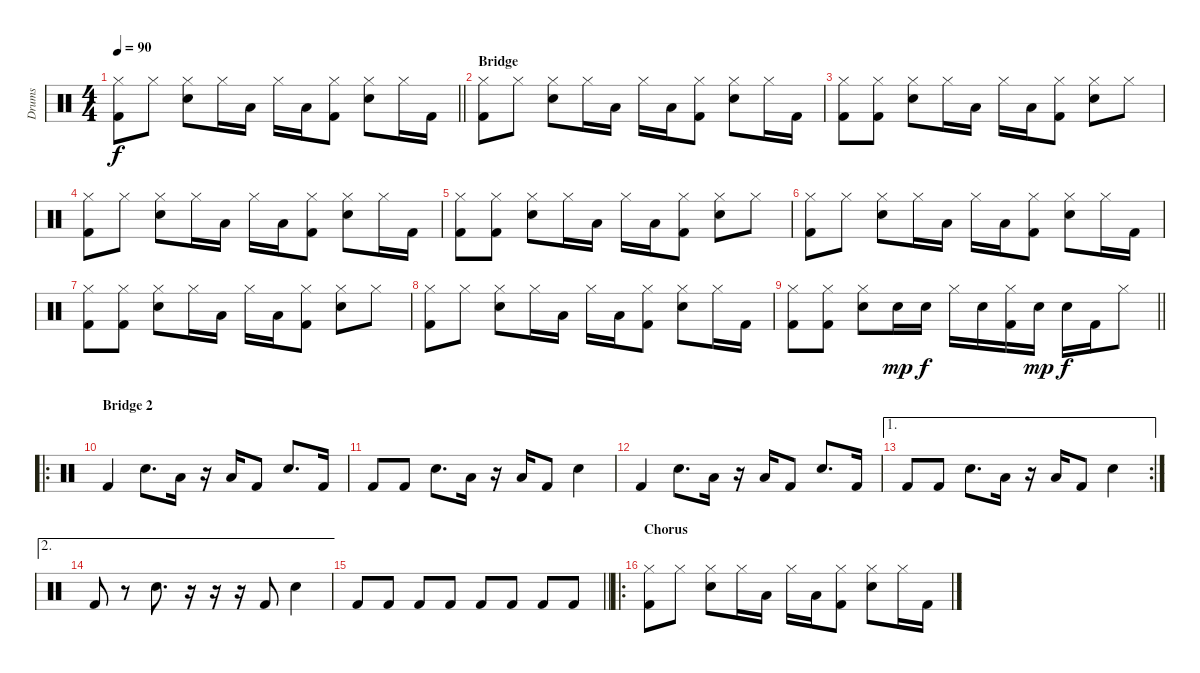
\track ("Drums" "Drums") {instrument percussion}
\staff {score}
\articulation defaults
\ts (4 4)
\tempo 90
\clef neutral
\barLineRight lightlight
\ks c
("Hi-Hat (closed)" "Kick (hit) 2").8{dy f} "Hi-Hat (closed)".8 ("Hand Clap (hit)" "Hi-Hat (closed)").8 "Hi-Hat (closed)".16 "Low Tom (hit)".16 "Hi-Hat (closed)".16 "Low Tom (hit)".16 ("Hi-Hat (closed)" "Kick (hit) 2").8 ("Hand Clap (hit)" "Hi-Hat (closed)").8 "Hi-Hat (closed)".16 "Kick (hit) 2".16 |
\section ("" "Bridge")
("Hi-Hat (closed)" "Kick (hit) 2").8 "Hi-Hat (closed)".8 ("Hand Clap (hit)" "Hi-Hat (closed)").8 "Hi-Hat (closed)".16 "Low Tom (hit)".16 "Hi-Hat (closed)".16 "Low Tom (hit)".16 ("Hi-Hat (closed)" "Kick (hit) 2").8 ("Hand Clap (hit)" "Hi-Hat (closed)").8 "Hi-Hat (closed)".16 "Kick (hit) 2".16 |
("Hi-Hat (closed)" "Kick (hit) 2").8 ("Hi-Hat (closed)" "Kick (hit) 2").8 ("Hand Clap (hit)" "Hi-Hat (closed)").8 "Hi-Hat (closed)".16 "Low Tom (hit)".16 "Hi-Hat (closed)".16 "Low Tom (hit)".16 ("Hi-Hat (closed)" "Kick (hit) 2").8 ("Hand Clap (hit)" "Hi-Hat (closed)").8 "Hi-Hat (closed)".8 |
("Hi-Hat (closed)" "Kick (hit) 2").8 "Hi-Hat (closed)".8 ("Hand Clap (hit)" "Hi-Hat (closed)").8 "Hi-Hat (closed)".16 "Low Tom (hit)".16 "Hi-Hat (closed)".16 "Low Tom (hit)".16 ("Hi-Hat (closed)" "Kick (hit) 2").8 ("Hand Clap (hit)" "Hi-Hat (closed)").8 "Hi-Hat (closed)".16 "Kick (hit) 2".16 |
("Hi-Hat (closed)" "Kick (hit) 2").8 ("Hi-Hat (closed)" "Kick (hit) 2").8 ("Hand Clap (hit)" "Hi-Hat (closed)").8 "Hi-Hat (closed)".16 "Low Tom (hit)".16 "Hi-Hat (closed)".16 "Low Tom (hit)".16 ("Hi-Hat (closed)" "Kick (hit) 2").8 ("Hand Clap (hit)" "Hi-Hat (closed)").8 "Hi-Hat (closed)".8 |
("Hi-Hat (closed)" "Kick (hit) 2").8 "Hi-Hat (closed)".8 ("Hand Clap (hit)" "Hi-Hat (closed)").8 "Hi-Hat (closed)".16 "Low Tom (hit)".16 "Hi-Hat (closed)".16 "Low Tom (hit)".16 ("Hi-Hat (closed)" "Kick (hit) 2").8 ("Hand Clap (hit)" "Hi-Hat (closed)").8 "Hi-Hat (closed)".16 "Kick (hit) 2".16 |
("Hi-Hat (closed)" "Kick (hit) 2").8 ("Hi-Hat (closed)" "Kick (hit) 2").8 ("Hand Clap (hit)" "Hi-Hat (closed)").8 "Hi-Hat (closed)".16 "Low Tom (hit)".16 "Hi-Hat (closed)".16 "Low Tom (hit)".16 ("Hi-Hat (closed)" "Kick (hit) 2").8 ("Hand Clap (hit)" "Hi-Hat (closed)").8 "Hi-Hat (closed)".8 |
("Hi-Hat (closed)" "Kick (hit) 2").8 "Hi-Hat (closed)".8 ("Hand Clap (hit)" "Hi-Hat (closed)").8 "Hi-Hat (closed)".16 "Low Tom (hit)".16 "Hi-Hat (closed)".16 "Low Tom (hit)".16 ("Hi-Hat (closed)" "Kick (hit) 2").8 ("Hand Clap (hit)" "Hi-Hat (closed)").8 "Hi-Hat (closed)".16 "Kick (hit) 2".16 |
\barLineRight lightlight
("Hi-Hat (closed)" "Kick (hit) 2").8 ("Hi-Hat (closed)" "Kick (hit) 2").8 ("Hand Clap (hit)" "Hi-Hat (closed)").8 "Electric Snare (hit)".16{dy mp} "Electric Snare (hit)".16{dy f} "Hi-Hat (closed)".16 "Electric Snare (hit)".16 ("Hi-Hat (closed)" "Kick (hit) 2").16 "Electric Snare (hit)".16{dy mp} "Electric Snare (hit)".16{dy f} "Kick (hit) 2".16 "Hi-Hat (closed)".8 |
\ro
\section ("" "Bridge 2")
"Kick (hit) 2".4 "Hand Clap (hit)".8{d} "Low Tom (hit)".16 r.16 "Low Tom (hit)".16 "Kick (hit) 2".8 "Hand Clap (hit)".8{d} "Kick (hit) 2".16 |
"Kick (hit) 2".8 "Kick (hit) 2".8 "Hand Clap (hit)".8{d} "Low Tom (hit)".16 r.16 "Low Tom (hit)".16 "Kick (hit) 2".8 "Hand Clap (hit)".4 |
"Kick (hit) 2".4 "Hand Clap (hit)".8{d} "Low Tom (hit)".16 r.16 "Low Tom (hit)".16 "Kick (hit) 2".8 "Hand Clap (hit)".8{d} "Kick (hit) 2".16 |
\ae 1
\rc 2 "Kick (hit) 2".8 "Kick (hit) 2".8 "Hand Clap (hit)".8{d} "Low Tom (hit)".16
r.16 "Low Tom (hit)".16 "Kick (hit) 2".8 "Hand Clap (hit)".4 |
\ae 2 "Kick (hit) 2".8
r.8 "Hand Clap (hit)".8{d} r.16 r.16 r.16 "Kick (hit) 2".8 "Hand Clap (hit)".4 |
\barLineRight lightlight "Kick (hit) 2".8 "Kick (hit) 2".8 "Kick (hit) 2".8 "Kick (hit) 2".8 "Kick (hit) 2".8 "Kick (hit) 2".8 "Kick (hit) 2".8 "Kick (hit) 2".8
|
\ro
\section ("" "Chorus")
("Hi-Hat (closed)" "Kick (hit) 2").8 "Hi-Hat (closed)".8 ("Hand Clap (hit)" "Hi-Hat (closed)").8 "Hi-Hat (closed)".16 "Low Tom (hit)".16 "Hi-Hat (closed)".16 "Low Tom (hit)".16 ("Hi-Hat (closed)" "Kick (hit) 2").8 ("Hand Clap (hit)" "Hi-Hat (closed)").8 "Hi-Hat (closed)".16 "Kick (hit) 2".16
